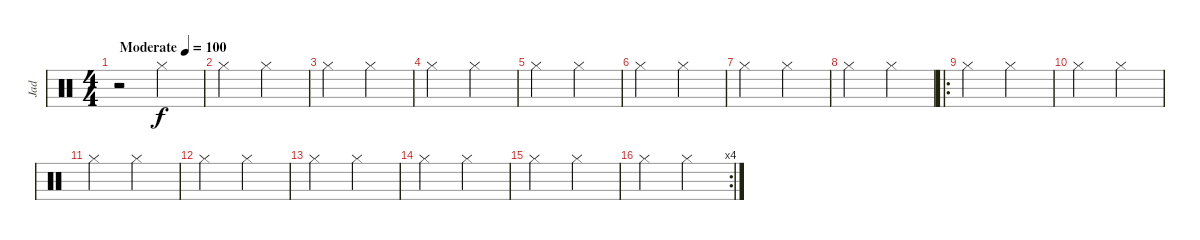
\track ("Jad" "Jad") {mute instrument percussion}
\staff {score}
\articulation defaults
\ts (4 4)
\tempo (100 "Moderate")
\clef neutral
\ks c
r.2{dy f} "Hi-Hat (closed)".2 |
"Hi-Hat (closed)".2 "Hi-Hat (closed)".2 |
"Hi-Hat (closed)".2 "Hi-Hat (closed)".2 |
"Hi-Hat (closed)".2 "Hi-Hat (closed)".2 |
"Hi-Hat (closed)".2 "Hi-Hat (closed)".2 |
"Hi-Hat (closed)".2 "Hi-Hat (closed)".2 |
"Hi-Hat (closed)".2 "Hi-Hat (closed)".2 |
"Hi-Hat (closed)".2 "Hi-Hat (closed)".2 |
\ro "Hi-Hat (closed)".2 "Hi-Hat (closed)".2
|
"Hi-Hat (closed)".2 "Hi-Hat (closed)".2 |
"Hi-Hat (closed)".2 "Hi-Hat (closed)".2 |
"Hi-Hat (closed)".2 "Hi-Hat (closed)".2 |
"Hi-Hat (closed)".2 "Hi-Hat (closed)".2 |
"Hi-Hat (closed)".2 "Hi-Hat (closed)".2 |
"Hi-Hat (closed)".2 "Hi-Hat (closed)".2 |
\rc 4 "Hi-Hat (closed)".2 "Hi-Hat (closed)".2
